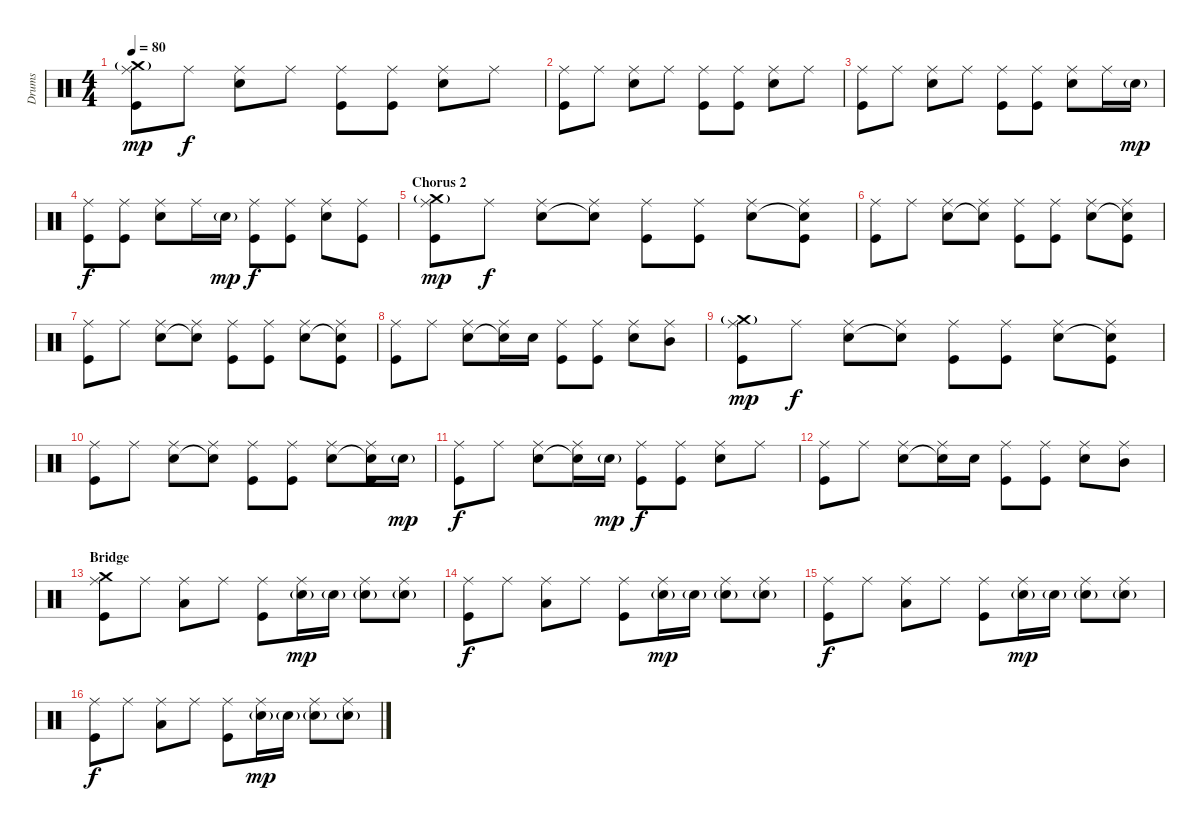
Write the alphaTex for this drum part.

\track ("Drums" "Drums") {instrument percussion}
\staff {score}
\articulation defaults
\ts (4 4)
\tempo 80
\clef neutral
\ks c
("Ride (middle)" "Crash medium (hit)"{g} "Kick (hit)").8{dy mp} "Ride (middle)".8{dy f} ("Ride (middle)" "Snare (hit) 2").8 "Ride (middle)".8 ("Ride (middle)" "Kick (hit)").8 ("Ride (middle)" "Kick (hit)").8 ("Ride (middle)" "Snare (hit) 2").8 "Ride (middle)".8 |
("Ride (middle)" "Kick (hit)").8 "Ride (middle)".8 ("Ride (middle)" "Snare (hit) 2").8 "Ride (middle)".8 ("Ride (middle)" "Kick (hit)").8 ("Ride (middle)" "Kick (hit)").8 ("Ride (middle)" "Snare (hit) 2").8 "Ride (middle)".8 |
("Ride (middle)" "Kick (hit)").8 "Ride (middle)".8 ("Ride (middle)" "Snare (hit) 2").8 "Ride (middle)".8 ("Ride (middle)" "Kick (hit)").8 ("Ride (middle)" "Kick (hit)").8 ("Ride (middle)" "Snare (hit) 2").8 "Ride (middle)".16 "Snare (hit) 2"{g}.16{dy mp} |
("Ride (middle)" "Kick (hit)").8{dy f} ("Ride (middle)" "Kick (hit)").8 ("Ride (middle)" "Snare (hit) 2").8 "Ride (middle)".16 "Snare (hit) 2"{g}.16{dy mp} ("Ride (middle)" "Kick (hit)").8{dy f} ("Ride (middle)" "Kick (hit)").8 ("Ride (middle)" "Snare (hit) 2").8 ("Ride (middle)" "Kick (hit)").8 |
\section ("" "Chorus 2")
("Ride (middle)" "Crash medium (hit)"{g} "Kick (hit)").8{dy mp} "Ride (middle)".8{dy f} ("Ride (middle)" "Snare (hit) 2").8 ("Ride (middle)" "Snare (hit)"{t}).8 ("Ride (middle)" "Kick (hit)").8 ("Ride (middle)" "Kick (hit)").8 ("Ride (middle)" "Snare (hit) 2").8 ("Ride (middle)" "Snare (hit)"{t} "Kick (hit)").8 |
("Ride (middle)" "Kick (hit)").8 "Ride (middle)".8 ("Ride (middle)" "Snare (hit) 2").8 ("Ride (middle)" "Snare (hit)"{t}).8 ("Ride (middle)" "Kick (hit)").8 ("Ride (middle)" "Kick (hit)").8 ("Ride (middle)" "Snare (hit) 2").8 ("Ride (middle)" "Snare (hit)"{t} "Kick (hit)").8 |
("Ride (middle)" "Kick (hit)").8 "Ride (middle)".8 ("Ride (middle)" "Snare (hit) 2").8 ("Ride (middle)" "Snare (hit)"{t}).8 ("Ride (middle)" "Kick (hit)").8 ("Ride (middle)" "Kick (hit)").8 ("Ride (middle)" "Snare (hit) 2").8 ("Ride (middle)" "Snare (hit)"{t} "Kick (hit)").8 |
("Ride (middle)" "Kick (hit)").8 "Ride (middle)".8 ("Ride (middle)" "Snare (hit) 2").8 ("Ride (middle)" "Snare (hit)"{t}).16 "Snare (hit) 2".16 ("Ride (middle)" "Kick (hit)").8 ("Ride (middle)" "Kick (hit)").8 ("Ride (middle)" "Snare (hit) 2").8 ("Ride (middle)" "Mid Tom (hit)").8 |
("Ride (middle)" "Crash medium (hit)"{g} "Kick (hit)").8{dy mp} "Ride (middle)".8{dy f} ("Ride (middle)" "Snare (hit) 2").8 ("Ride (middle)" "Snare (hit)"{t}).8 ("Ride (middle)" "Kick (hit)").8 ("Ride (middle)" "Kick (hit)").8 ("Ride (middle)" "Snare (hit) 2").8 ("Ride (middle)" "Snare (hit)"{t} "Kick (hit)").8 |
("Ride (middle)" "Kick (hit)").8 "Ride (middle)".8 ("Ride (middle)" "Snare (hit) 2").8 ("Ride (middle)" "Snare (hit)"{t}).8 ("Ride (middle)" "Kick (hit)").8 ("Ride (middle)" "Kick (hit)").8 ("Ride (middle)" "Snare (hit) 2").8 ("Ride (middle)" "Snare (hit)"{t} "Kick (hit)").16 "Snare (hit) 2"{g}.16{dy mp} |
("Ride (middle)" "Kick (hit)").8{dy f} "Ride (middle)".8 ("Ride (middle)" "Snare (hit) 2").8 ("Ride (middle)" "Snare (hit)"{t}).16 "Snare (hit) 2"{g}.16{dy mp} ("Ride (middle)" "Kick (hit)").8{dy f} ("Ride (middle)" "Kick (hit)").8 ("Ride (middle)" "Snare (hit) 2").8 "Ride (middle)".8 |
("Ride (middle)" "Kick (hit)").8 "Ride (middle)".8 ("Ride (middle)" "Snare (hit) 2").8 ("Ride (middle)" "Snare (hit)"{t}).16 "Snare (hit) 2".16 ("Ride (middle)" "Kick (hit)").8 ("Ride (middle)" "Kick (hit)").8 ("Ride (middle)" "Snare (hit) 2").8 ("Ride (middle)" "Mid Tom (hit)").8 |
\section ("" "Bridge")
("Ride (middle)" "Crash medium (hit)" "Kick (hit)").8 "Ride (middle)".8 ("Ride (middle)" "Low Tom (hit)").8 "Ride (middle)".8 ("Ride (middle)" "Kick (hit)").8 ("Ride (middle)" "Snare (hit) 2"{g}).16{dy mp} "Snare (hit) 2"{g}.16 ("Ride (middle)" "Snare (hit) 2"{g}).8 ("Ride (middle)" "Snare (hit) 2"{g}).8 |
("Ride (middle)" "Kick (hit)").8{dy f} "Ride (middle)".8 ("Ride (middle)" "Low Tom (hit)").8 "Ride (middle)".8 ("Ride (middle)" "Kick (hit)").8 ("Ride (middle)" "Snare (hit) 2"{g}).16{dy mp} "Snare (hit) 2"{g}.16 ("Ride (middle)" "Snare (hit) 2"{g}).8 ("Ride (middle)" "Snare (hit) 2"{g}).8 |
("Ride (middle)" "Kick (hit)").8{dy f} "Ride (middle)".8 ("Ride (middle)" "Low Tom (hit)").8 "Ride (middle)".8 ("Ride (middle)" "Kick (hit)").8 ("Ride (middle)" "Snare (hit) 2"{g}).16{dy mp} "Snare (hit) 2"{g}.16 ("Ride (middle)" "Snare (hit) 2"{g}).8 ("Ride (middle)" "Snare (hit) 2"{g}).8 |
("Ride (middle)" "Kick (hit)").8{dy f} "Ride (middle)".8 ("Ride (middle)" "Low Tom (hit)").8 "Ride (middle)".8 ("Ride (middle)" "Kick (hit)").8 ("Ride (middle)" "Snare (hit) 2"{g}).16{dy mp} "Snare (hit) 2"{g}.16 ("Ride (middle)" "Snare (hit) 2"{g}).8 ("Ride (middle)" "Snare (hit) 2"{g}).8
